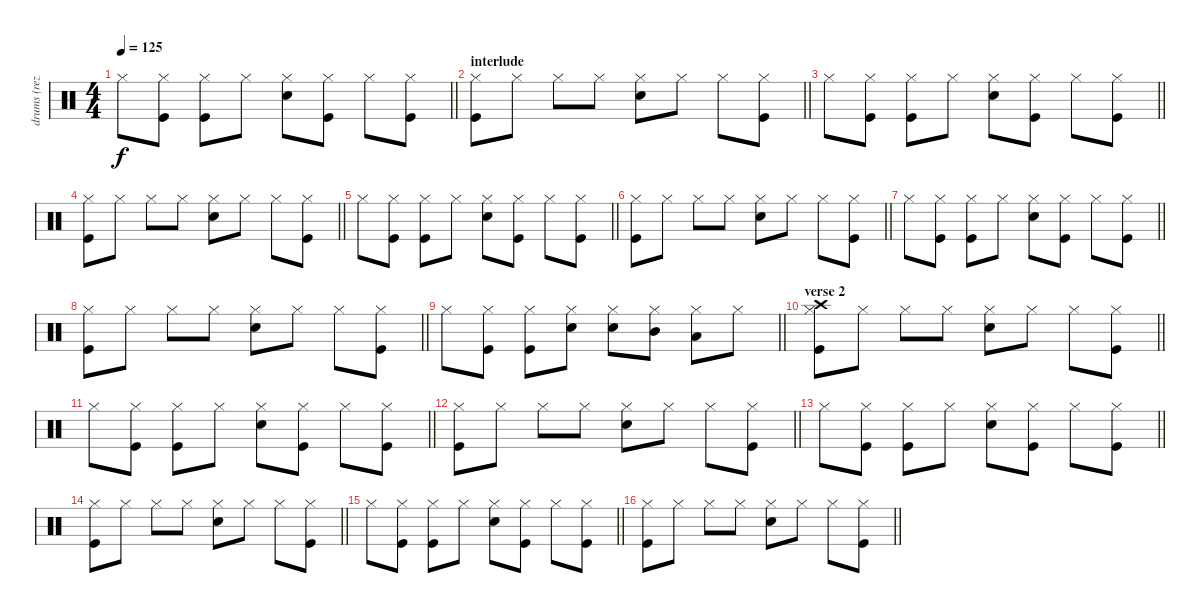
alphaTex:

\track ("drums (reza)" "drums (rez") {instrument percussion}
\staff {score}
\articulation defaults
\ts (4 4)
\tempo 125
\clef neutral
\barLineRight lightlight
\ks c "Hi-Hat (closed)".8{dy f}
("Hi-Hat (closed)" "Kick (hit)").8 ("Hi-Hat (closed)" "Kick (hit)").8 "Hi-Hat (closed)".8 ("Hi-Hat (closed)" "Snare (hit) 2").8 ("Hi-Hat (closed)" "Kick (hit)").8 "Hi-Hat (closed)".8 ("Hi-Hat (closed)" "Kick (hit)").8 |
\section ("" "interlude")
\barLineRight lightlight
("Hi-Hat (closed)" "Kick (hit)").8 "Hi-Hat (closed)".8 "Hi-Hat (closed)".8 "Hi-Hat (closed)".8 ("Hi-Hat (closed)" "Snare (hit) 2").8 "Hi-Hat (closed)".8 "Hi-Hat (closed)".8 ("Hi-Hat (closed)" "Kick (hit)").8 |
\barLineRight lightlight "Hi-Hat (closed)".8
("Hi-Hat (closed)" "Kick (hit)").8 ("Hi-Hat (closed)" "Kick (hit)").8 "Hi-Hat (closed)".8 ("Hi-Hat (closed)" "Snare (hit) 2").8 ("Hi-Hat (closed)" "Kick (hit)").8 "Hi-Hat (closed)".8 ("Hi-Hat (closed)" "Kick (hit)").8 |
\barLineRight lightlight
("Hi-Hat (closed)" "Kick (hit)").8 "Hi-Hat (closed)".8 "Hi-Hat (closed)".8 "Hi-Hat (closed)".8 ("Hi-Hat (closed)" "Snare (hit) 2").8 "Hi-Hat (closed)".8 "Hi-Hat (closed)".8 ("Hi-Hat (closed)" "Kick (hit)").8 |
\barLineRight lightlight "Hi-Hat (closed)".8
("Hi-Hat (closed)" "Kick (hit)").8 ("Hi-Hat (closed)" "Kick (hit)").8 "Hi-Hat (closed)".8 ("Hi-Hat (closed)" "Snare (hit) 2").8 ("Hi-Hat (closed)" "Kick (hit)").8 "Hi-Hat (closed)".8 ("Hi-Hat (closed)" "Kick (hit)").8 |
\barLineRight lightlight
("Hi-Hat (closed)" "Kick (hit)").8 "Hi-Hat (closed)".8 "Hi-Hat (closed)".8 "Hi-Hat (closed)".8 ("Hi-Hat (closed)" "Snare (hit) 2").8 "Hi-Hat (closed)".8 "Hi-Hat (closed)".8 ("Hi-Hat (closed)" "Kick (hit)").8 |
\barLineRight lightlight "Hi-Hat (closed)".8
("Hi-Hat (closed)" "Kick (hit)").8 ("Hi-Hat (closed)" "Kick (hit)").8 "Hi-Hat (closed)".8 ("Hi-Hat (closed)" "Snare (hit) 2").8 ("Hi-Hat (closed)" "Kick (hit)").8 "Hi-Hat (closed)".8 ("Hi-Hat (closed)" "Kick (hit)").8 |
\barLineRight lightlight
("Hi-Hat (closed)" "Kick (hit)").8 "Hi-Hat (closed)".8 "Hi-Hat (closed)".8 "Hi-Hat (closed)".8 ("Hi-Hat (closed)" "Snare (hit) 2").8 "Hi-Hat (closed)".8 "Hi-Hat (closed)".8 ("Hi-Hat (closed)" "Kick (hit)").8 |
\barLineRight lightlight "Hi-Hat (closed)".8
("Hi-Hat (closed)" "Kick (hit)").8 ("Hi-Hat (closed)" "Kick (hit)").8 ("Hi-Hat (closed)" "Snare (hit) 2").8 ("Hi-Hat (closed)" "Snare (hit) 2").8 ("Hi-Hat (closed)" "Mid Tom (hit)").8 ("Hi-Hat (closed)" "Low Tom (hit)").8 "Hi-Hat (closed)".8 |
\section ("" "verse 2")
\barLineRight lightlight
("Hi-Hat (closed)" "Kick (hit)" "Crash high (hit)").8 "Hi-Hat (closed)".8 "Hi-Hat (closed)".8 "Hi-Hat (closed)".8 ("Hi-Hat (closed)" "Snare (hit) 2").8 "Hi-Hat (closed)".8 "Hi-Hat (closed)".8 ("Hi-Hat (closed)" "Kick (hit)").8 |
\barLineRight lightlight "Hi-Hat (closed)".8
("Hi-Hat (closed)" "Kick (hit)").8 ("Hi-Hat (closed)" "Kick (hit)").8 "Hi-Hat (closed)".8 ("Hi-Hat (closed)" "Snare (hit) 2").8 ("Hi-Hat (closed)" "Kick (hit)").8 "Hi-Hat (closed)".8 ("Hi-Hat (closed)" "Kick (hit)").8 |
\barLineRight lightlight
("Hi-Hat (closed)" "Kick (hit)").8 "Hi-Hat (closed)".8 "Hi-Hat (closed)".8 "Hi-Hat (closed)".8 ("Hi-Hat (closed)" "Snare (hit) 2").8 "Hi-Hat (closed)".8 "Hi-Hat (closed)".8 ("Hi-Hat (closed)" "Kick (hit)").8 |
\barLineRight lightlight "Hi-Hat (closed)".8
("Hi-Hat (closed)" "Kick (hit)").8 ("Hi-Hat (closed)" "Kick (hit)").8 "Hi-Hat (closed)".8 ("Hi-Hat (closed)" "Snare (hit) 2").8 ("Hi-Hat (closed)" "Kick (hit)").8 "Hi-Hat (closed)".8 ("Hi-Hat (closed)" "Kick (hit)").8 |
\barLineRight lightlight
("Hi-Hat (closed)" "Kick (hit)").8 "Hi-Hat (closed)".8 "Hi-Hat (closed)".8 "Hi-Hat (closed)".8 ("Hi-Hat (closed)" "Snare (hit) 2").8 "Hi-Hat (closed)".8 "Hi-Hat (closed)".8 ("Hi-Hat (closed)" "Kick (hit)").8 |
\barLineRight lightlight "Hi-Hat (closed)".8
("Hi-Hat (closed)" "Kick (hit)").8 ("Hi-Hat (closed)" "Kick (hit)").8 "Hi-Hat (closed)".8 ("Hi-Hat (closed)" "Snare (hit) 2").8 ("Hi-Hat (closed)" "Kick (hit)").8 "Hi-Hat (closed)".8 ("Hi-Hat (closed)" "Kick (hit)").8 |
\barLineRight lightlight
("Hi-Hat (closed)" "Kick (hit)").8 "Hi-Hat (closed)".8 "Hi-Hat (closed)".8 "Hi-Hat (closed)".8 ("Hi-Hat (closed)" "Snare (hit) 2").8 "Hi-Hat (closed)".8 "Hi-Hat (closed)".8 ("Hi-Hat (closed)" "Kick (hit)").8
